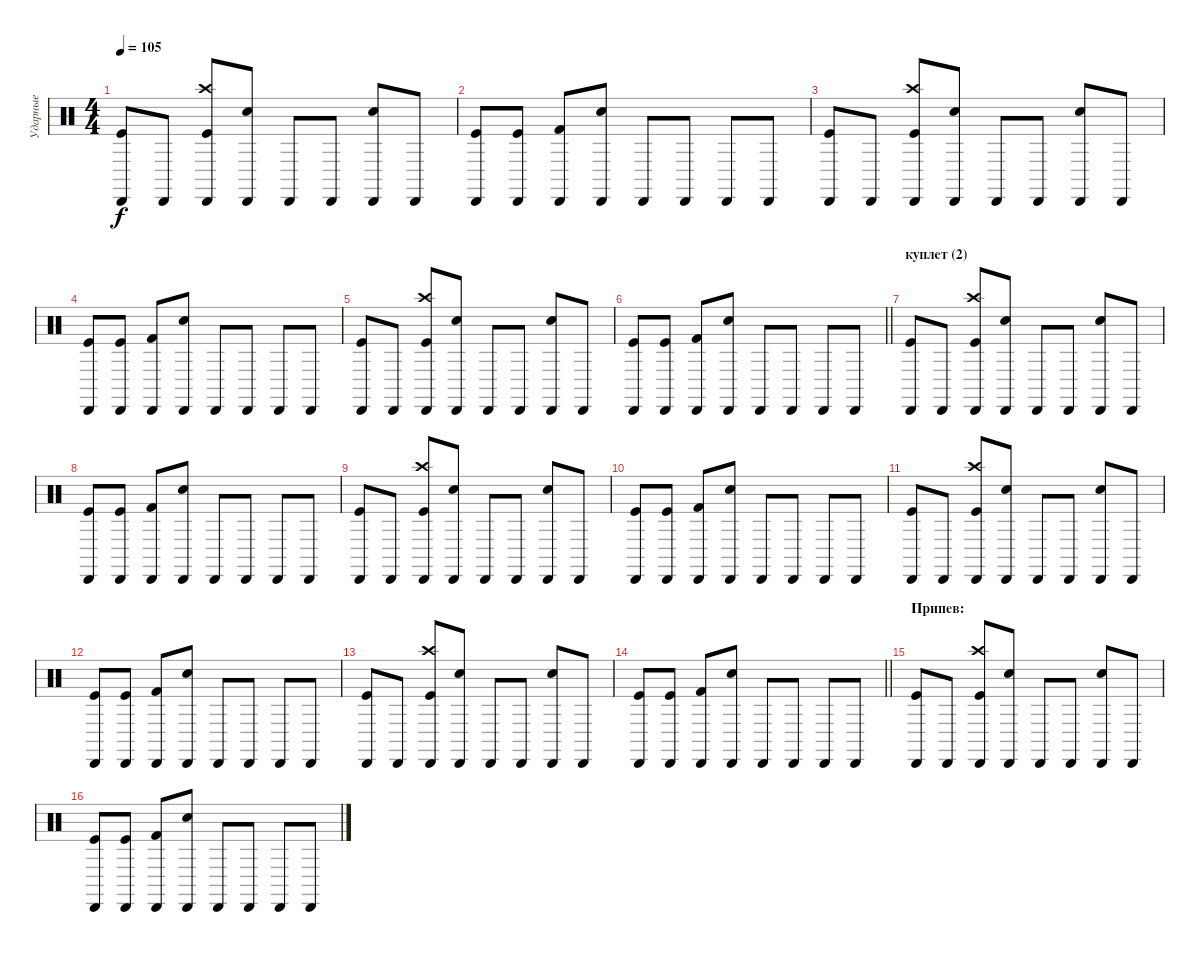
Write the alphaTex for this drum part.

\track ("Ударные" "Ударные") {instrument percussion}
\staff {score}
\articulation defaults
\ts (4 4)
\tempo 105
\clef neutral
\ks c
("Cabasa (hit)" "Kick (hit)").8{dy f} "Cabasa (hit)".8 ("Cabasa (hit)" "Crash high (hit)" "Kick (hit)").8 ("Cabasa (hit)" "Electric Snare (hit)").8 "Cabasa (hit)".8 "Cabasa (hit)".8 ("Cabasa (hit)" "Snare (hit) 2").8 "Cabasa (hit)".8 |
("Cabasa (hit)" "Kick (hit)").8 ("Cabasa (hit)" "Kick (hit)").8 ("Cabasa (hit)" "Kick (hit) 2").8 ("Cabasa (hit)" "Electric Snare (hit)").8 "Cabasa (hit)".8 "Cabasa (hit)".8 "Cabasa (hit)".8 "Cabasa (hit)".8 |
("Cabasa (hit)" "Kick (hit)").8 "Cabasa (hit)".8 ("Cabasa (hit)" "Crash high (hit)" "Kick (hit)").8 ("Cabasa (hit)" "Electric Snare (hit)").8 "Cabasa (hit)".8 "Cabasa (hit)".8 ("Cabasa (hit)" "Snare (hit) 2").8 "Cabasa (hit)".8 |
("Cabasa (hit)" "Kick (hit)").8 ("Cabasa (hit)" "Kick (hit)").8 ("Cabasa (hit)" "Kick (hit) 2").8 ("Cabasa (hit)" "Electric Snare (hit)").8 "Cabasa (hit)".8 "Cabasa (hit)".8 "Cabasa (hit)".8 "Cabasa (hit)".8 |
("Cabasa (hit)" "Kick (hit)").8 "Cabasa (hit)".8 ("Cabasa (hit)" "Crash high (hit)" "Kick (hit)").8 ("Cabasa (hit)" "Electric Snare (hit)").8 "Cabasa (hit)".8 "Cabasa (hit)".8 ("Cabasa (hit)" "Snare (hit) 2").8 "Cabasa (hit)".8 |
\barLineRight lightlight
("Cabasa (hit)" "Kick (hit)").8 ("Cabasa (hit)" "Kick (hit)").8 ("Cabasa (hit)" "Kick (hit) 2").8 ("Cabasa (hit)" "Electric Snare (hit)").8 "Cabasa (hit)".8 "Cabasa (hit)".8 "Cabasa (hit)".8 "Cabasa (hit)".8 |
\section ("" "куплет (2)")
("Cabasa (hit)" "Kick (hit)").8 "Cabasa (hit)".8 ("Cabasa (hit)" "Crash high (hit)" "Kick (hit)").8 ("Cabasa (hit)" "Electric Snare (hit)").8 "Cabasa (hit)".8 "Cabasa (hit)".8 ("Cabasa (hit)" "Snare (hit) 2").8 "Cabasa (hit)".8 |
("Cabasa (hit)" "Kick (hit)").8 ("Cabasa (hit)" "Kick (hit)").8 ("Cabasa (hit)" "Kick (hit) 2").8 ("Cabasa (hit)" "Electric Snare (hit)").8 "Cabasa (hit)".8 "Cabasa (hit)".8 "Cabasa (hit)".8 "Cabasa (hit)".8 |
("Cabasa (hit)" "Kick (hit)").8 "Cabasa (hit)".8 ("Cabasa (hit)" "Crash high (hit)" "Kick (hit)").8 ("Cabasa (hit)" "Electric Snare (hit)").8 "Cabasa (hit)".8 "Cabasa (hit)".8 ("Cabasa (hit)" "Snare (hit) 2").8 "Cabasa (hit)".8 |
("Cabasa (hit)" "Kick (hit)").8 ("Cabasa (hit)" "Kick (hit)").8 ("Cabasa (hit)" "Kick (hit) 2").8 ("Cabasa (hit)" "Electric Snare (hit)").8 "Cabasa (hit)".8 "Cabasa (hit)".8 "Cabasa (hit)".8 "Cabasa (hit)".8 |
("Cabasa (hit)" "Kick (hit)").8 "Cabasa (hit)".8 ("Cabasa (hit)" "Crash high (hit)" "Kick (hit)").8 ("Cabasa (hit)" "Electric Snare (hit)").8 "Cabasa (hit)".8 "Cabasa (hit)".8 ("Cabasa (hit)" "Snare (hit) 2").8 "Cabasa (hit)".8 |
("Cabasa (hit)" "Kick (hit)").8 ("Cabasa (hit)" "Kick (hit)").8 ("Cabasa (hit)" "Kick (hit) 2").8 ("Cabasa (hit)" "Electric Snare (hit)").8 "Cabasa (hit)".8 "Cabasa (hit)".8 "Cabasa (hit)".8 "Cabasa (hit)".8 |
("Cabasa (hit)" "Kick (hit)").8 "Cabasa (hit)".8 ("Cabasa (hit)" "Crash high (hit)" "Kick (hit)").8 ("Cabasa (hit)" "Electric Snare (hit)").8 "Cabasa (hit)".8 "Cabasa (hit)".8 ("Cabasa (hit)" "Snare (hit) 2").8 "Cabasa (hit)".8 |
\barLineRight lightlight
("Cabasa (hit)" "Kick (hit)").8 ("Cabasa (hit)" "Kick (hit)").8 ("Cabasa (hit)" "Kick (hit) 2").8 ("Cabasa (hit)" "Electric Snare (hit)").8 "Cabasa (hit)".8 "Cabasa (hit)".8 "Cabasa (hit)".8 "Cabasa (hit)".8 |
\section ("" "Припев:")
("Cabasa (hit)" "Kick (hit)").8 "Cabasa (hit)".8 ("Cabasa (hit)" "Crash high (hit)" "Kick (hit)").8 ("Cabasa (hit)" "Electric Snare (hit)").8 "Cabasa (hit)".8 "Cabasa (hit)".8 ("Cabasa (hit)" "Snare (hit) 2").8 "Cabasa (hit)".8 |
("Cabasa (hit)" "Kick (hit)").8 ("Cabasa (hit)" "Kick (hit)").8 ("Cabasa (hit)" "Kick (hit) 2").8 ("Cabasa (hit)" "Electric Snare (hit)").8 "Cabasa (hit)".8 "Cabasa (hit)".8 "Cabasa (hit)".8 "Cabasa (hit)".8
